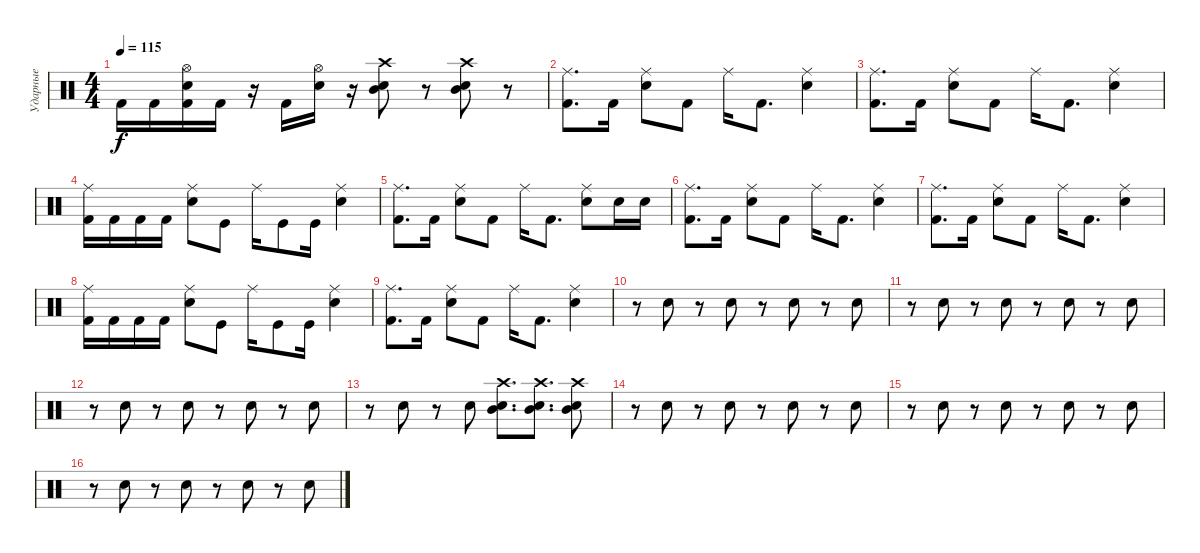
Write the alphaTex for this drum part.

\track ("Ударные" "Ударные") {instrument percussion}
\staff {score}
\articulation defaults
\ts (4 4)
\tempo 115
\clef neutral
\ks c "Kick (hit) 2".16{dy f} "Kick (hit) 2".16
("Kick (hit) 2" "Snare (hit) 2" "Hi-Hat (open)").16 "Kick (hit) 2".16 r.16 "Kick (hit) 2".16 ("Snare (hit) 2" "Hi-Hat (open)").16 r.16 ("Snare (hit) 2" "Mid Tom (hit)" "Crash high (hit)").8 r.8 ("Snare (hit) 2" "Mid Tom (hit)" "Crash high (hit)").8 r.8 |
("Kick (hit) 2" "Ride (middle)").8{d} "Kick (hit) 2".16 ("Snare (hit) 2" "Ride (middle)").8 "Kick (hit) 2".8 "Ride (middle)".16 "Kick (hit) 2".8{d} ("Snare (hit) 2" "Ride (middle)").4 |
("Kick (hit) 2" "Ride (middle)").8{d} "Kick (hit) 2".16 ("Snare (hit) 2" "Ride (middle)").8 "Kick (hit) 2".8 "Ride (middle)".16 "Kick (hit) 2".8{d} ("Snare (hit) 2" "Ride (middle)").4 |
("Kick (hit) 2" "Ride (middle)").16 "Kick (hit) 2".16 "Kick (hit) 2".16 "Kick (hit) 2".16 ("Snare (hit) 2" "Ride (middle)").8 "Kick (hit)".8 "Ride (middle)".16 "Kick (hit)".8 "Kick (hit)".16 ("Snare (hit) 2" "Ride (middle)").4 |
("Kick (hit) 2" "Ride (middle)").8{d} "Kick (hit) 2".16 ("Snare (hit) 2" "Ride (middle)").8 "Kick (hit) 2".8 "Ride (middle)".16 "Kick (hit) 2".8{d} ("Snare (hit) 2" "Ride (middle)").8 "Snare (hit) 2".16 "Snare (hit) 2".16 |
("Kick (hit) 2" "Ride (middle)").8{d} "Kick (hit) 2".16 ("Snare (hit) 2" "Ride (middle)").8 "Kick (hit) 2".8 "Ride (middle)".16 "Kick (hit) 2".8{d} ("Snare (hit) 2" "Ride (middle)").4 |
("Kick (hit) 2" "Ride (middle)").8{d} "Kick (hit) 2".16 ("Snare (hit) 2" "Ride (middle)").8 "Kick (hit) 2".8 "Ride (middle)".16 "Kick (hit) 2".8{d} ("Snare (hit) 2" "Ride (middle)").4 |
("Kick (hit) 2" "Ride (middle)").16 "Kick (hit) 2".16 "Kick (hit) 2".16 "Kick (hit) 2".16 ("Snare (hit) 2" "Ride (middle)").8 "Kick (hit)".8 "Ride (middle)".16 "Kick (hit)".8 "Kick (hit)".16 ("Snare (hit) 2" "Ride (middle)").4 |
("Kick (hit) 2" "Ride (middle)").8{d} "Kick (hit) 2".16 ("Snare (hit) 2" "Ride (middle)").8 "Kick (hit) 2".8 "Ride (middle)".16 "Kick (hit) 2".8{d} ("Snare (hit) 2" "Ride (middle)").4 |
r.8 "Snare (hit) 2".8 r.8 "Snare (hit) 2".8 r.8 "Snare (hit) 2".8 r.8 "Snare (hit) 2".8 |
r.8 "Snare (hit) 2".8 r.8 "Snare (hit) 2".8 r.8 "Snare (hit) 2".8 r.8 "Snare (hit) 2".8 |
r.8 "Snare (hit) 2".8 r.8 "Snare (hit) 2".8 r.8 "Snare (hit) 2".8 r.8 "Snare (hit) 2".8 |
r.8 "Snare (hit) 2".8 r.8 "Snare (hit) 2".8 ("Snare (hit) 2" "Mid Tom (hit)" "Crash high (hit)").8{d} ("Snare (hit) 2" "Mid Tom (hit)" "Crash high (hit)").8{d} ("Snare (hit) 2" "Mid Tom (hit)" "Crash high (hit)").8 |
r.8 "Snare (hit) 2".8 r.8 "Snare (hit) 2".8 r.8 "Snare (hit) 2".8 r.8 "Snare (hit) 2".8 |
r.8 "Snare (hit) 2".8 r.8 "Snare (hit) 2".8 r.8 "Snare (hit) 2".8 r.8 "Snare (hit) 2".8 |
r.8 "Snare (hit) 2".8 r.8 "Snare (hit) 2".8 r.8 "Snare (hit) 2".8 r.8 "Snare (hit) 2".8
